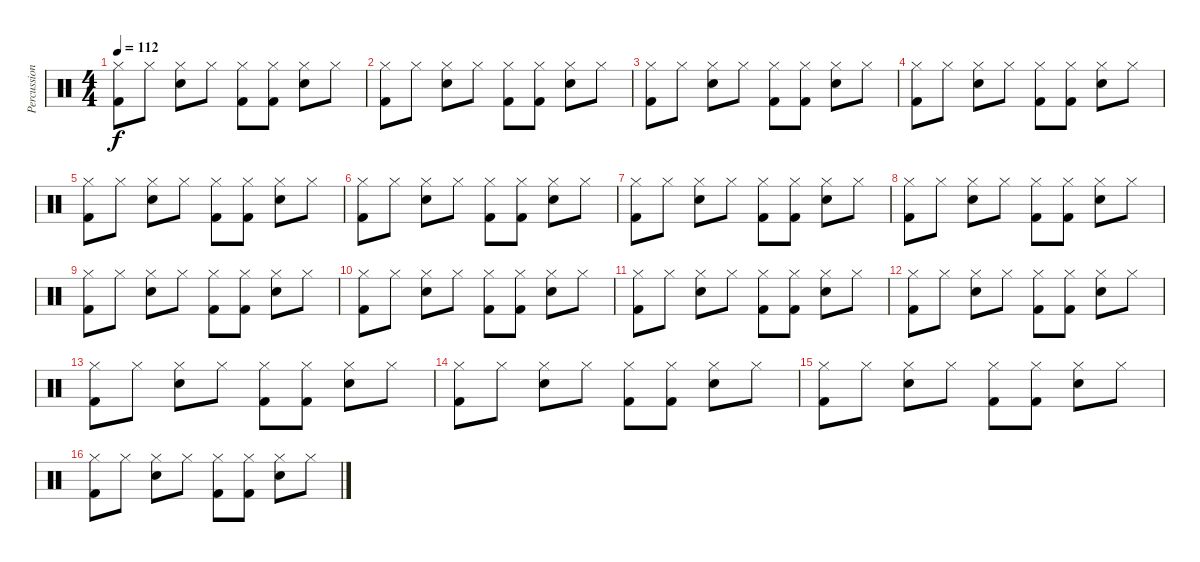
\track ("Percussion" "Percussion") {instrument percussion}
\staff {score}
\articulation defaults
\ts (4 4)
\tempo 112
\clef neutral
\ks c
("Hi-Hat (closed)" "Kick (hit) 2").8{dy f} "Hi-Hat (closed)".8 ("Hi-Hat (closed)" "Snare (hit) 2").8 "Hi-Hat (closed)".8 ("Hi-Hat (closed)" "Kick (hit) 2").8 ("Hi-Hat (closed)" "Kick (hit) 2").8 ("Hi-Hat (closed)" "Snare (hit) 2").8 "Hi-Hat (closed)".8 |
("Hi-Hat (closed)" "Kick (hit) 2").8 "Hi-Hat (closed)".8 ("Hi-Hat (closed)" "Snare (hit) 2").8 "Hi-Hat (closed)".8 ("Hi-Hat (closed)" "Kick (hit) 2").8 ("Hi-Hat (closed)" "Kick (hit) 2").8 ("Hi-Hat (closed)" "Snare (hit) 2").8 "Hi-Hat (closed)".8 |
("Hi-Hat (closed)" "Kick (hit) 2").8 "Hi-Hat (closed)".8 ("Hi-Hat (closed)" "Snare (hit) 2").8 "Hi-Hat (closed)".8 ("Hi-Hat (closed)" "Kick (hit) 2").8 ("Hi-Hat (closed)" "Kick (hit) 2").8 ("Hi-Hat (closed)" "Snare (hit) 2").8 "Hi-Hat (closed)".8 |
("Hi-Hat (closed)" "Kick (hit) 2").8 "Hi-Hat (closed)".8 ("Hi-Hat (closed)" "Snare (hit) 2").8 "Hi-Hat (closed)".8 ("Hi-Hat (closed)" "Kick (hit) 2").8 ("Hi-Hat (closed)" "Kick (hit) 2").8 ("Hi-Hat (closed)" "Snare (hit) 2").8 "Hi-Hat (closed)".8 |
("Hi-Hat (closed)" "Kick (hit) 2").8 "Hi-Hat (closed)".8 ("Hi-Hat (closed)" "Snare (hit) 2").8 "Hi-Hat (closed)".8 ("Hi-Hat (closed)" "Kick (hit) 2").8 ("Hi-Hat (closed)" "Kick (hit) 2").8 ("Hi-Hat (closed)" "Snare (hit) 2").8 "Hi-Hat (closed)".8 |
("Hi-Hat (closed)" "Kick (hit) 2").8 "Hi-Hat (closed)".8 ("Hi-Hat (closed)" "Snare (hit) 2").8 "Hi-Hat (closed)".8 ("Hi-Hat (closed)" "Kick (hit) 2").8 ("Hi-Hat (closed)" "Kick (hit) 2").8 ("Hi-Hat (closed)" "Snare (hit) 2").8 "Hi-Hat (closed)".8 |
("Hi-Hat (closed)" "Kick (hit) 2").8 "Hi-Hat (closed)".8 ("Hi-Hat (closed)" "Snare (hit) 2").8 "Hi-Hat (closed)".8 ("Hi-Hat (closed)" "Kick (hit) 2").8 ("Hi-Hat (closed)" "Kick (hit) 2").8 ("Hi-Hat (closed)" "Snare (hit) 2").8 "Hi-Hat (closed)".8 |
("Hi-Hat (closed)" "Kick (hit) 2").8 "Hi-Hat (closed)".8 ("Hi-Hat (closed)" "Snare (hit) 2").8 "Hi-Hat (closed)".8 ("Hi-Hat (closed)" "Kick (hit) 2").8 ("Hi-Hat (closed)" "Kick (hit) 2").8 ("Hi-Hat (closed)" "Snare (hit) 2").8 "Hi-Hat (closed)".8 |
("Hi-Hat (closed)" "Kick (hit) 2").8 "Hi-Hat (closed)".8 ("Hi-Hat (closed)" "Snare (hit) 2").8 "Hi-Hat (closed)".8 ("Hi-Hat (closed)" "Kick (hit) 2").8 ("Hi-Hat (closed)" "Kick (hit) 2").8 ("Hi-Hat (closed)" "Snare (hit) 2").8 "Hi-Hat (closed)".8 |
("Hi-Hat (closed)" "Kick (hit) 2").8 "Hi-Hat (closed)".8 ("Hi-Hat (closed)" "Snare (hit) 2").8 "Hi-Hat (closed)".8 ("Hi-Hat (closed)" "Kick (hit) 2").8 ("Hi-Hat (closed)" "Kick (hit) 2").8 ("Hi-Hat (closed)" "Snare (hit) 2").8 "Hi-Hat (closed)".8 |
("Hi-Hat (closed)" "Kick (hit) 2").8 "Hi-Hat (closed)".8 ("Hi-Hat (closed)" "Snare (hit) 2").8 "Hi-Hat (closed)".8 ("Hi-Hat (closed)" "Kick (hit) 2").8 ("Hi-Hat (closed)" "Kick (hit) 2").8 ("Hi-Hat (closed)" "Snare (hit) 2").8 "Hi-Hat (closed)".8 |
("Hi-Hat (closed)" "Kick (hit) 2").8 "Hi-Hat (closed)".8 ("Hi-Hat (closed)" "Snare (hit) 2").8 "Hi-Hat (closed)".8 ("Hi-Hat (closed)" "Kick (hit) 2").8 ("Hi-Hat (closed)" "Kick (hit) 2").8 ("Hi-Hat (closed)" "Snare (hit) 2").8 "Hi-Hat (closed)".8 |
("Hi-Hat (closed)" "Kick (hit) 2").8 "Hi-Hat (closed)".8 ("Hi-Hat (closed)" "Snare (hit) 2").8 "Hi-Hat (closed)".8 ("Hi-Hat (closed)" "Kick (hit) 2").8 ("Hi-Hat (closed)" "Kick (hit) 2").8 ("Hi-Hat (closed)" "Snare (hit) 2").8 "Hi-Hat (closed)".8 |
("Hi-Hat (closed)" "Kick (hit) 2").8 "Hi-Hat (closed)".8 ("Hi-Hat (closed)" "Snare (hit) 2").8 "Hi-Hat (closed)".8 ("Hi-Hat (closed)" "Kick (hit) 2").8 ("Hi-Hat (closed)" "Kick (hit) 2").8 ("Hi-Hat (closed)" "Snare (hit) 2").8 "Hi-Hat (closed)".8 |
("Hi-Hat (closed)" "Kick (hit) 2").8 "Hi-Hat (closed)".8 ("Hi-Hat (closed)" "Snare (hit) 2").8 "Hi-Hat (closed)".8 ("Hi-Hat (closed)" "Kick (hit) 2").8 ("Hi-Hat (closed)" "Kick (hit) 2").8 ("Hi-Hat (closed)" "Snare (hit) 2").8 "Hi-Hat (closed)".8 |
("Hi-Hat (closed)" "Kick (hit) 2").8 "Hi-Hat (closed)".8 ("Hi-Hat (closed)" "Snare (hit) 2").8 "Hi-Hat (closed)".8 ("Hi-Hat (closed)" "Kick (hit) 2").8 ("Hi-Hat (closed)" "Kick (hit) 2").8 ("Hi-Hat (closed)" "Snare (hit) 2").8 "Hi-Hat (closed)".8
